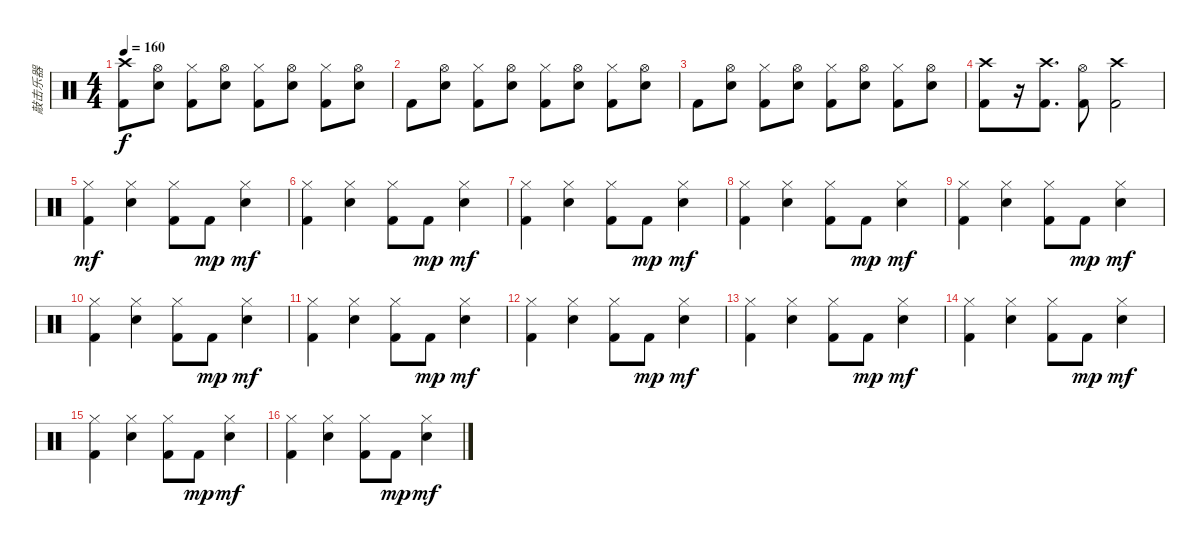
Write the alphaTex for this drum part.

\track ("敲击乐器" "敲击乐器") {instrument percussion}
\staff {score}
\articulation defaults
\ts (4 4)
\tempo 160
\clef neutral
\ks c
("Crash high (hit)" "Kick (hit) 2").8{dy f} ("Hi-Hat (open)" "Electric Snare (hit)").8 ("Hi-Hat (closed)" "Kick (hit) 2").8 ("Hi-Hat (open)" "Electric Snare (hit)").8 ("Hi-Hat (closed)" "Kick (hit) 2").8 ("Hi-Hat (open)" "Electric Snare (hit)").8 ("Hi-Hat (closed)" "Kick (hit) 2").8 ("Hi-Hat (open)" "Electric Snare (hit)").8 |
"Kick (hit) 2".8 ("Hi-Hat (open)" "Electric Snare (hit)").8 ("Hi-Hat (closed)" "Kick (hit) 2").8 ("Hi-Hat (open)" "Electric Snare (hit)").8 ("Hi-Hat (closed)" "Kick (hit) 2").8 ("Hi-Hat (open)" "Electric Snare (hit)").8 ("Hi-Hat (closed)" "Kick (hit) 2").8 ("Hi-Hat (open)" "Electric Snare (hit)").8 |
"Kick (hit) 2".8 ("Hi-Hat (open)" "Electric Snare (hit)").8 ("Hi-Hat (closed)" "Kick (hit) 2").8 ("Hi-Hat (open)" "Electric Snare (hit)").8 ("Hi-Hat (closed)" "Kick (hit) 2").8 ("Hi-Hat (open)" "Electric Snare (hit)").8 ("Hi-Hat (closed)" "Kick (hit) 2").8 ("Hi-Hat (open)" "Electric Snare (hit)").8 |
("Crash high (hit)" "Kick (hit) 2").8 r.16 ("Crash high (hit)" "Kick (hit) 2").8{d} ("Hi-Hat (open)" "Kick (hit) 2").8 ("Crash high (hit)" "Kick (hit) 2").2 |
("Hi-Hat (closed)" "Kick (hit) 2").4{dy mf} ("Snare (hit) 2" "Hi-Hat (closed)").4 ("Hi-Hat (closed)" "Kick (hit) 2").8 "Kick (hit) 2".8{dy mp} ("Snare (hit) 2" "Hi-Hat (closed)").4{dy mf} |
("Hi-Hat (closed)" "Kick (hit) 2").4 ("Snare (hit) 2" "Hi-Hat (closed)").4 ("Hi-Hat (closed)" "Kick (hit) 2").8 "Kick (hit) 2".8{dy mp} ("Snare (hit) 2" "Hi-Hat (closed)").4{dy mf} |
("Hi-Hat (closed)" "Kick (hit) 2").4 ("Snare (hit) 2" "Hi-Hat (closed)").4 ("Hi-Hat (closed)" "Kick (hit) 2").8 "Kick (hit) 2".8{dy mp} ("Snare (hit) 2" "Hi-Hat (closed)").4{dy mf} |
("Hi-Hat (closed)" "Kick (hit) 2").4 ("Snare (hit) 2" "Hi-Hat (closed)").4 ("Hi-Hat (closed)" "Kick (hit) 2").8 "Kick (hit) 2".8{dy mp} ("Snare (hit) 2" "Hi-Hat (closed)").4{dy mf} |
("Hi-Hat (closed)" "Kick (hit) 2").4 ("Snare (hit) 2" "Hi-Hat (closed)").4 ("Hi-Hat (closed)" "Kick (hit) 2").8 "Kick (hit) 2".8{dy mp} ("Snare (hit) 2" "Hi-Hat (closed)").4{dy mf} |
("Hi-Hat (closed)" "Kick (hit) 2").4 ("Snare (hit) 2" "Hi-Hat (closed)").4 ("Hi-Hat (closed)" "Kick (hit) 2").8 "Kick (hit) 2".8{dy mp} ("Snare (hit) 2" "Hi-Hat (closed)").4{dy mf} |
("Hi-Hat (closed)" "Kick (hit) 2").4 ("Snare (hit) 2" "Hi-Hat (closed)").4 ("Hi-Hat (closed)" "Kick (hit) 2").8 "Kick (hit) 2".8{dy mp} ("Snare (hit) 2" "Hi-Hat (closed)").4{dy mf} |
("Hi-Hat (closed)" "Kick (hit) 2").4 ("Snare (hit) 2" "Hi-Hat (closed)").4 ("Hi-Hat (closed)" "Kick (hit) 2").8 "Kick (hit) 2".8{dy mp} ("Snare (hit) 2" "Hi-Hat (closed)").4{dy mf} |
("Hi-Hat (closed)" "Kick (hit) 2").4 ("Snare (hit) 2" "Hi-Hat (closed)").4 ("Hi-Hat (closed)" "Kick (hit) 2").8 "Kick (hit) 2".8{dy mp} ("Snare (hit) 2" "Hi-Hat (closed)").4{dy mf} |
("Hi-Hat (closed)" "Kick (hit) 2").4 ("Snare (hit) 2" "Hi-Hat (closed)").4 ("Hi-Hat (closed)" "Kick (hit) 2").8 "Kick (hit) 2".8{dy mp} ("Snare (hit) 2" "Hi-Hat (closed)").4{dy mf} |
("Hi-Hat (closed)" "Kick (hit) 2").4 ("Snare (hit) 2" "Hi-Hat (closed)").4 ("Hi-Hat (closed)" "Kick (hit) 2").8 "Kick (hit) 2".8{dy mp} ("Snare (hit) 2" "Hi-Hat (closed)").4{dy mf} |
("Hi-Hat (closed)" "Kick (hit) 2").4 ("Snare (hit) 2" "Hi-Hat (closed)").4 ("Hi-Hat (closed)" "Kick (hit) 2").8 "Kick (hit) 2".8{dy mp} ("Snare (hit) 2" "Hi-Hat (closed)").4{dy mf}
